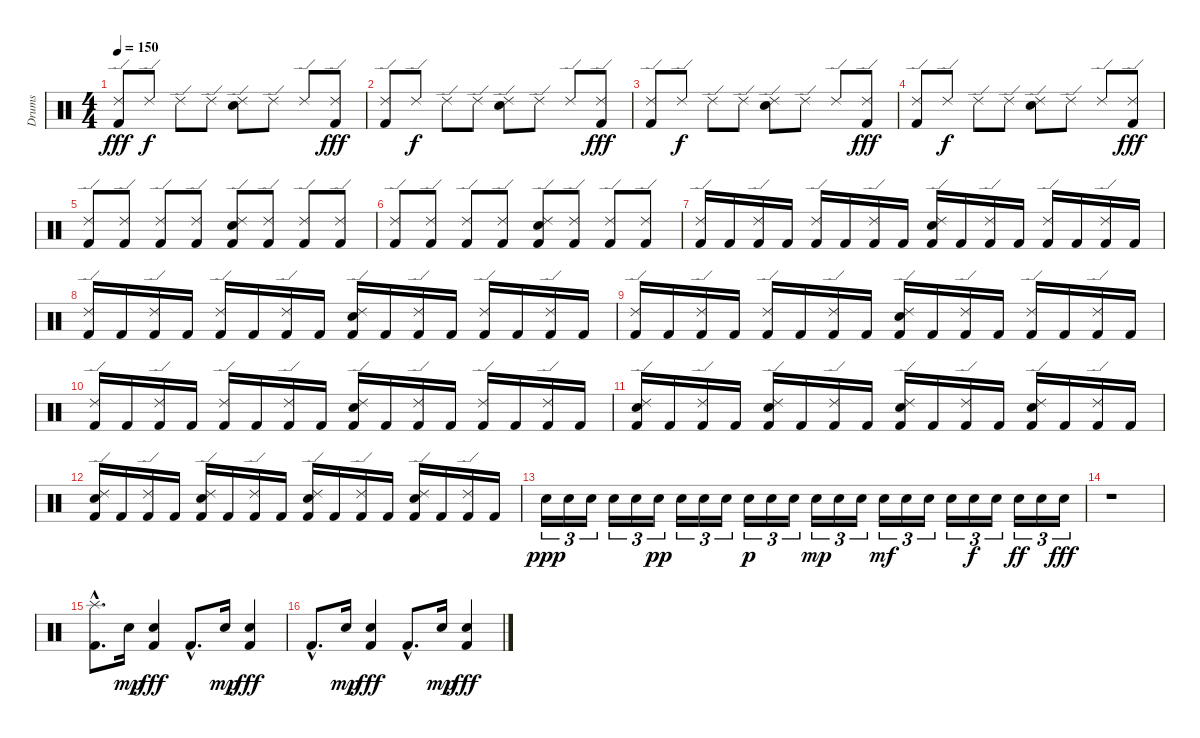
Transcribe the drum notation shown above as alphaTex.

\track ("Drums" "Drums") {instrument percussion}
\staff {score}
\articulation defaults
\ts (4 4)
\tempo 150
\clef neutral
\ks c
("Ride (edge) 2" "Kick (hit) 2").8{dy fff} "Ride (edge) 2".8{dy f} "Ride (edge) 2".8 "Ride (edge) 2".8 ("Ride (edge) 2" "Snare (hit) 2").8 "Ride (edge) 2".8 "Ride (edge) 2".8 ("Ride (edge) 2" "Kick (hit) 2").8{dy fff} |
("Ride (edge) 2" "Kick (hit) 2").8 "Ride (edge) 2".8{dy f} "Ride (edge) 2".8 "Ride (edge) 2".8 ("Ride (edge) 2" "Snare (hit) 2").8 "Ride (edge) 2".8 "Ride (edge) 2".8 ("Ride (edge) 2" "Kick (hit) 2").8{dy fff} |
("Ride (edge) 2" "Kick (hit) 2").8 "Ride (edge) 2".8{dy f} "Ride (edge) 2".8 "Ride (edge) 2".8 ("Ride (edge) 2" "Snare (hit) 2").8 "Ride (edge) 2".8 "Ride (edge) 2".8 ("Ride (edge) 2" "Kick (hit) 2").8{dy fff} |
("Ride (edge) 2" "Kick (hit) 2").8 "Ride (edge) 2".8{dy f} "Ride (edge) 2".8 "Ride (edge) 2".8 ("Ride (edge) 2" "Snare (hit) 2").8 "Ride (edge) 2".8 "Ride (edge) 2".8 ("Ride (edge) 2" "Kick (hit) 2").8{dy fff} |
("Ride (edge) 2" "Kick (hit) 2").8 ("Ride (edge) 2" "Kick (hit) 2").8 ("Ride (edge) 2" "Kick (hit) 2").8 ("Ride (edge) 2" "Kick (hit) 2").8 ("Ride (edge) 2" "Snare (hit) 2" "Kick (hit) 2").8 ("Ride (edge) 2" "Kick (hit) 2").8 ("Ride (edge) 2" "Kick (hit) 2").8 ("Ride (edge) 2" "Kick (hit) 2").8 |
("Ride (edge) 2" "Kick (hit) 2").8 ("Ride (edge) 2" "Kick (hit) 2").8 ("Ride (edge) 2" "Kick (hit) 2").8 ("Ride (edge) 2" "Kick (hit) 2").8 ("Ride (edge) 2" "Snare (hit) 2" "Kick (hit) 2").8 ("Ride (edge) 2" "Kick (hit) 2").8 ("Ride (edge) 2" "Kick (hit) 2").8 ("Ride (edge) 2" "Kick (hit) 2").8 |
("Ride (edge) 2" "Kick (hit) 2").16 "Kick (hit) 2".16 ("Ride (edge) 2" "Kick (hit) 2").16 "Kick (hit) 2".16 ("Ride (edge) 2" "Kick (hit) 2").16 "Kick (hit) 2".16 ("Ride (edge) 2" "Kick (hit) 2").16 "Kick (hit) 2".16 ("Ride (edge) 2" "Snare (hit) 2" "Kick (hit) 2").16 "Kick (hit) 2".16 ("Ride (edge) 2" "Kick (hit) 2").16 "Kick (hit) 2".16 ("Ride (edge) 2" "Kick (hit) 2").16 "Kick (hit) 2".16 ("Ride (edge) 2" "Kick (hit) 2").16 "Kick (hit) 2".16 |
("Ride (edge) 2" "Kick (hit) 2").16 "Kick (hit) 2".16 ("Ride (edge) 2" "Kick (hit) 2").16 "Kick (hit) 2".16 ("Ride (edge) 2" "Kick (hit) 2").16 "Kick (hit) 2".16 ("Ride (edge) 2" "Kick (hit) 2").16 "Kick (hit) 2".16 ("Ride (edge) 2" "Snare (hit) 2" "Kick (hit) 2").16 "Kick (hit) 2".16 ("Ride (edge) 2" "Kick (hit) 2").16 "Kick (hit) 2".16 ("Ride (edge) 2" "Kick (hit) 2").16 "Kick (hit) 2".16 ("Ride (edge) 2" "Kick (hit) 2").16 "Kick (hit) 2".16 |
("Ride (edge) 2" "Kick (hit) 2").16 "Kick (hit) 2".16 ("Ride (edge) 2" "Kick (hit) 2").16 "Kick (hit) 2".16 ("Ride (edge) 2" "Kick (hit) 2").16 "Kick (hit) 2".16 ("Ride (edge) 2" "Kick (hit) 2").16 "Kick (hit) 2".16 ("Ride (edge) 2" "Snare (hit) 2" "Kick (hit) 2").16 "Kick (hit) 2".16 ("Ride (edge) 2" "Kick (hit) 2").16 "Kick (hit) 2".16 ("Ride (edge) 2" "Kick (hit) 2").16 "Kick (hit) 2".16 ("Ride (edge) 2" "Kick (hit) 2").16 "Kick (hit) 2".16 |
("Ride (edge) 2" "Kick (hit) 2").16 "Kick (hit) 2".16 ("Ride (edge) 2" "Kick (hit) 2").16 "Kick (hit) 2".16 ("Ride (edge) 2" "Kick (hit) 2").16 "Kick (hit) 2".16 ("Ride (edge) 2" "Kick (hit) 2").16 "Kick (hit) 2".16 ("Ride (edge) 2" "Snare (hit) 2" "Kick (hit) 2").16 "Kick (hit) 2".16 ("Ride (edge) 2" "Kick (hit) 2").16 "Kick (hit) 2".16 ("Ride (edge) 2" "Kick (hit) 2").16 "Kick (hit) 2".16 ("Ride (edge) 2" "Kick (hit) 2").16 "Kick (hit) 2".16 |
("Ride (edge) 2" "Snare (hit) 2" "Kick (hit) 2").16 "Kick (hit) 2".16 ("Ride (edge) 2" "Kick (hit) 2").16 "Kick (hit) 2".16 ("Ride (edge) 2" "Snare (hit) 2" "Kick (hit) 2").16 "Kick (hit) 2".16 ("Ride (edge) 2" "Kick (hit) 2").16 "Kick (hit) 2".16 ("Ride (edge) 2" "Snare (hit) 2" "Kick (hit) 2").16 "Kick (hit) 2".16 ("Ride (edge) 2" "Kick (hit) 2").16 "Kick (hit) 2".16 ("Ride (edge) 2" "Snare (hit) 2" "Kick (hit) 2").16 "Kick (hit) 2".16 ("Ride (edge) 2" "Kick (hit) 2").16 "Kick (hit) 2".16 |
("Ride (edge) 2" "Snare (hit) 2" "Kick (hit) 2").16 "Kick (hit) 2".16 ("Ride (edge) 2" "Kick (hit) 2").16 "Kick (hit) 2".16 ("Ride (edge) 2" "Snare (hit) 2" "Kick (hit) 2").16 "Kick (hit) 2".16 ("Ride (edge) 2" "Kick (hit) 2").16 "Kick (hit) 2".16 ("Ride (edge) 2" "Snare (hit) 2" "Kick (hit) 2").16 "Kick (hit) 2".16 ("Ride (edge) 2" "Kick (hit) 2").16 "Kick (hit) 2".16 ("Ride (edge) 2" "Snare (hit) 2" "Kick (hit) 2").16 "Kick (hit) 2".16 ("Ride (edge) 2" "Kick (hit) 2").16 "Kick (hit) 2".16 |
"Snare (hit) 2".16{tu (3 2) dy ppp} "Snare (hit) 2".16{tu (3 2)} "Snare (hit) 2".16{tu (3 2)} "Snare (hit) 2".16{tu (3 2)} "Snare (hit) 2".16{tu (3 2)} "Snare (hit) 2".16{tu (3 2) dy pp} "Snare (hit) 2".16{tu (3 2)} "Snare (hit) 2".16{tu (3 2)} "Snare (hit) 2".16{tu (3 2)} "Snare (hit) 2".16{tu (3 2) dy p} "Snare (hit) 2".16{tu (3 2)} "Snare (hit) 2".16{tu (3 2)} "Snare (hit) 2".16{tu (3 2) dy mp} "Snare (hit) 2".16{tu (3 2)} "Snare (hit) 2".16{tu (3 2)} "Snare (hit) 2".16{tu (3 2) dy mf} "Snare (hit) 2".16{tu (3 2)} "Snare (hit) 2".16{tu (3 2)} "Snare (hit) 2".16{tu (3 2)} "Snare (hit) 2".16{tu (3 2) dy f} "Snare (hit) 2".16{tu (3 2)} "Snare (hit) 2".16{tu (3 2) dy ff} "Snare (hit) 2".16{tu (3 2)} "Snare (hit) 2".16{tu (3 2) dy fff} |
r.1 |
("Splash (hit)"{hac} "Kick (hit) 2"{hac}).8{d} "Snare (hit) 2".16{dy mp} ("Snare (hit) 2" "Kick (hit) 2").4{dy fff} "Kick (hit) 2"{hac}.8{d} "Snare (hit) 2".16{dy mp} ("Snare (hit) 2" "Kick (hit) 2").4{dy fff} |
"Kick (hit) 2"{hac}.8{d} "Snare (hit) 2".16{dy mp} ("Snare (hit) 2" "Kick (hit) 2").4{dy fff} "Kick (hit) 2"{hac}.8{d} "Snare (hit) 2".16{dy mp} ("Snare (hit) 2" "Kick (hit) 2").4{dy fff}
